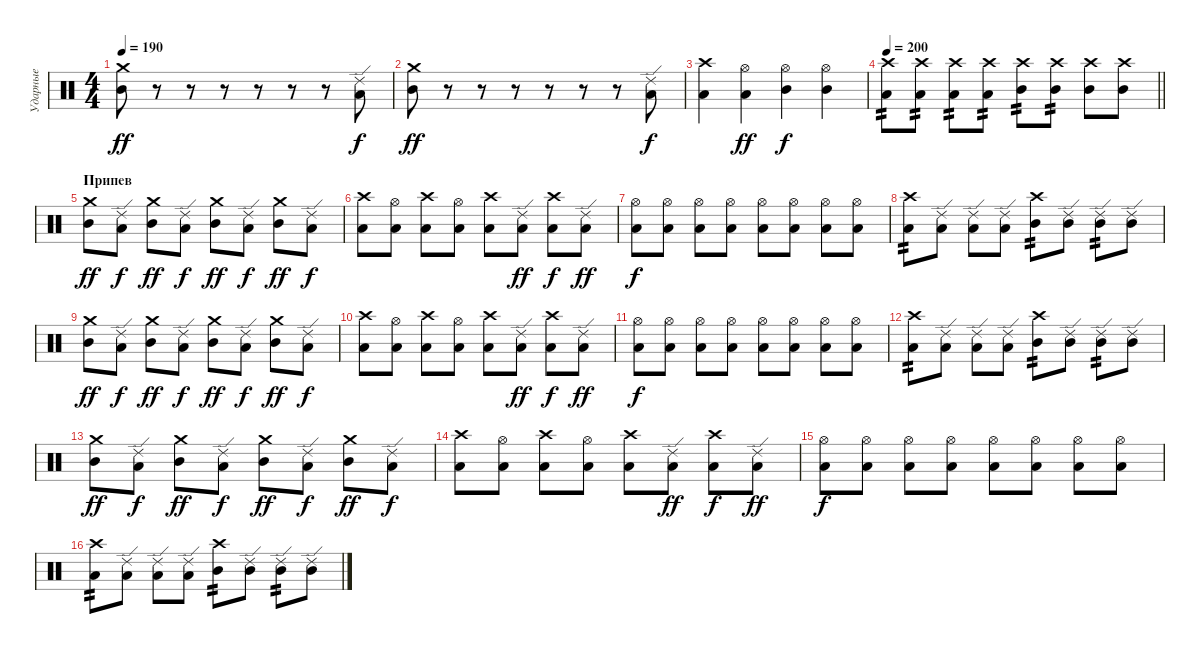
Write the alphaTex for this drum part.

\track ("Ударные" "Ударные") {instrument percussion}
\staff {score}
\articulation defaults
\ts (4 4)
\tempo 190
\clef neutral
\ks c
("Crash medium (hit)" "Mid Tom (hit)").8{dy ff} r.8 r.8 r.8 r.8 r.8 r.8 ("Ride (edge) 2" "Low Floor Tom (hit)").8{dy f} |
("Crash medium (hit)" "Mid Tom (hit)").8{dy ff} r.8 r.8 r.8 r.8 r.8 r.8 ("Ride (edge) 2" "Low Floor Tom (hit)").8{dy f} |
("Crash high (hit)" "Low Tom (hit)").4 ("Hi-Hat (open)" "Low Floor Tom (hit)").4{dy ff} ("Hi-Hat (open)" "Mid Tom (hit)").4{dy f} ("Hi-Hat (open)" "Mid Tom (hit)").4 |
\tempo 200
\barLineRight lightlight
("Crash high (hit)" "Low Tom (hit)").8{tp 2} ("Crash high (hit)" "Low Tom (hit)").8{tp 2} ("Crash high (hit)" "Low Tom (hit)").8{tp 2} ("Crash high (hit)" "Low Tom (hit)").8{tp 2} ("Crash high (hit)" "Mid Tom (hit)").8{tp 2} ("Crash high (hit)" "Mid Tom (hit)").8{tp 2} ("Crash high (hit)" "Mid Tom (hit)").8 ("Crash high (hit)" "Mid Tom (hit)").8 |
\section ("" "Припев")
("Crash medium (hit)" "Mid Tom (hit)").8{dy ff} ("Ride (edge) 2" "Low Tom (hit)").8{dy f} ("Crash medium (hit)" "Mid Tom (hit)").8{dy ff} ("Ride (edge) 2" "Low Tom (hit)").8{dy f} ("Crash medium (hit)" "Mid Tom (hit)").8{dy ff} ("Ride (edge) 2" "Low Tom (hit)").8{dy f} ("Crash medium (hit)" "Mid Tom (hit)").8{dy ff} ("Ride (edge) 2" "Low Tom (hit)").8{dy f} |
("Crash high (hit)" "Low Tom (hit)").8 ("Hi-Hat (open)" "Low Floor Tom (hit)").8 ("Crash high (hit)" "Low Tom (hit)").8 ("Hi-Hat (open)" "Low Floor Tom (hit)").8 ("Crash high (hit)" "Low Tom (hit)").8 ("Ride (edge) 2" "Low Floor Tom (hit)").8{dy ff} ("Crash high (hit)" "Low Tom (hit)").8{dy f} ("Ride (edge) 2" "Low Floor Tom (hit)").8{dy ff} |
("Hi-Hat (open)" "Low Tom (hit)").8{dy f} ("Hi-Hat (open)" "Low Tom (hit)").8 ("Hi-Hat (open)" "Low Tom (hit)").8 ("Hi-Hat (open)" "Low Tom (hit)").8 ("Hi-Hat (open)" "Low Tom (hit)").8 ("Hi-Hat (open)" "Low Tom (hit)").8 ("Hi-Hat (open)" "Low Tom (hit)").8 ("Hi-Hat (open)" "Low Tom (hit)").8 |
("Crash high (hit)" "Low Tom (hit)").8{tp 2} ("Ride (edge) 2" "Low Tom (hit)").8 ("Ride (edge) 2" "Low Tom (hit)").8 ("Ride (edge) 2" "Low Tom (hit)").8 ("Crash high (hit)" "Mid Tom (hit)").8{tp 2} ("Ride (edge) 2" "Mid Tom (hit)").8 ("Ride (edge) 2" "Mid Tom (hit)").8{tp 2} ("Ride (edge) 2" "Mid Tom (hit)").8 |
("Crash medium (hit)" "Mid Tom (hit)").8{dy ff} ("Ride (edge) 2" "Low Tom (hit)").8{dy f} ("Crash medium (hit)" "Mid Tom (hit)").8{dy ff} ("Ride (edge) 2" "Low Tom (hit)").8{dy f} ("Crash medium (hit)" "Mid Tom (hit)").8{dy ff} ("Ride (edge) 2" "Low Tom (hit)").8{dy f} ("Crash medium (hit)" "Mid Tom (hit)").8{dy ff} ("Ride (edge) 2" "Low Tom (hit)").8{dy f} |
("Crash high (hit)" "Low Tom (hit)").8 ("Hi-Hat (open)" "Low Floor Tom (hit)").8 ("Crash high (hit)" "Low Tom (hit)").8 ("Hi-Hat (open)" "Low Floor Tom (hit)").8 ("Crash high (hit)" "Low Tom (hit)").8 ("Ride (edge) 2" "Low Floor Tom (hit)").8{dy ff} ("Crash high (hit)" "Low Tom (hit)").8{dy f} ("Ride (edge) 2" "Low Floor Tom (hit)").8{dy ff} |
("Hi-Hat (open)" "Low Tom (hit)").8{dy f} ("Hi-Hat (open)" "Low Tom (hit)").8 ("Hi-Hat (open)" "Low Tom (hit)").8 ("Hi-Hat (open)" "Low Tom (hit)").8 ("Hi-Hat (open)" "Low Tom (hit)").8 ("Hi-Hat (open)" "Low Tom (hit)").8 ("Hi-Hat (open)" "Low Tom (hit)").8 ("Hi-Hat (open)" "Low Tom (hit)").8 |
("Crash high (hit)" "Low Tom (hit)").8{tp 2} ("Ride (edge) 2" "Low Tom (hit)").8 ("Ride (edge) 2" "Low Tom (hit)").8 ("Ride (edge) 2" "Low Tom (hit)").8 ("Crash high (hit)" "Mid Tom (hit)").8{tp 2} ("Ride (edge) 2" "Mid Tom (hit)").8 ("Ride (edge) 2" "Mid Tom (hit)").8{tp 2} ("Ride (edge) 2" "Mid Tom (hit)").8 |
("Crash medium (hit)" "Mid Tom (hit)").8{dy ff} ("Ride (edge) 2" "Low Tom (hit)").8{dy f} ("Crash medium (hit)" "Mid Tom (hit)").8{dy ff} ("Ride (edge) 2" "Low Tom (hit)").8{dy f} ("Crash medium (hit)" "Mid Tom (hit)").8{dy ff} ("Ride (edge) 2" "Low Tom (hit)").8{dy f} ("Crash medium (hit)" "Mid Tom (hit)").8{dy ff} ("Ride (edge) 2" "Low Tom (hit)").8{dy f} |
("Crash high (hit)" "Low Tom (hit)").8 ("Hi-Hat (open)" "Low Floor Tom (hit)").8 ("Crash high (hit)" "Low Tom (hit)").8 ("Hi-Hat (open)" "Low Floor Tom (hit)").8 ("Crash high (hit)" "Low Tom (hit)").8 ("Ride (edge) 2" "Low Floor Tom (hit)").8{dy ff} ("Crash high (hit)" "Low Tom (hit)").8{dy f} ("Ride (edge) 2" "Low Floor Tom (hit)").8{dy ff} |
("Hi-Hat (open)" "Low Tom (hit)").8{dy f} ("Hi-Hat (open)" "Low Tom (hit)").8 ("Hi-Hat (open)" "Low Tom (hit)").8 ("Hi-Hat (open)" "Low Tom (hit)").8 ("Hi-Hat (open)" "Low Tom (hit)").8 ("Hi-Hat (open)" "Low Tom (hit)").8 ("Hi-Hat (open)" "Low Tom (hit)").8 ("Hi-Hat (open)" "Low Tom (hit)").8 |
("Crash high (hit)" "Low Tom (hit)").8{tp 2} ("Ride (edge) 2" "Low Tom (hit)").8 ("Ride (edge) 2" "Low Tom (hit)").8 ("Ride (edge) 2" "Low Tom (hit)").8 ("Crash high (hit)" "Mid Tom (hit)").8{tp 2} ("Ride (edge) 2" "Mid Tom (hit)").8 ("Ride (edge) 2" "Mid Tom (hit)").8{tp 2} ("Ride (edge) 2" "Mid Tom (hit)").8
